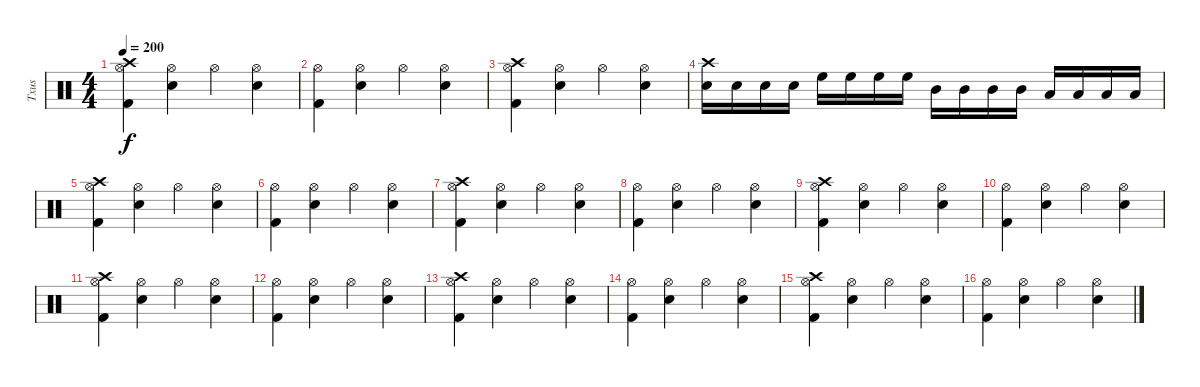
\track ("Txus" "Txus") {instrument percussion}
\staff
\articulation defaults
\ts (4 4)
\tempo 200
\clef neutral
\ks c
("Kick (hit) 2" "Crash high (hit)" "Hi-Hat (open)").4{dy f} ("Electric Snare (hit)" "Hi-Hat (open)").4 "Hi-Hat (open)".4 ("Electric Snare (hit)" "Hi-Hat (open)").4 |
("Kick (hit) 2" "Hi-Hat (open)").4 ("Electric Snare (hit)" "Hi-Hat (open)").4 "Hi-Hat (open)".4 ("Electric Snare (hit)" "Hi-Hat (open)").4 |
("Kick (hit) 2" "Crash high (hit)" "Hi-Hat (open)").4 ("Electric Snare (hit)" "Hi-Hat (open)").4 "Hi-Hat (open)".4 ("Electric Snare (hit)" "Hi-Hat (open)").4 |
("Electric Snare (hit)" "Crash high (hit)").16 "Electric Snare (hit)".16 "Electric Snare (hit)".16 "Electric Snare (hit)".16 "High Floor Tom (hit)".16 "High Floor Tom (hit)".16 "High Floor Tom (hit)".16 "High Floor Tom (hit)".16 "Mid Tom (hit)".16 "Mid Tom (hit)".16 "Mid Tom (hit)".16 "Mid Tom (hit)".16 "Low Tom (hit)".16 "Low Tom (hit)".16 "Low Tom (hit)".16 "Low Tom (hit)".16 |
("Kick (hit) 2" "Crash high (hit)" "Hi-Hat (open)").4 ("Electric Snare (hit)" "Hi-Hat (open)").4 "Hi-Hat (open)".4 ("Electric Snare (hit)" "Hi-Hat (open)").4 |
("Kick (hit) 2" "Hi-Hat (open)").4 ("Electric Snare (hit)" "Hi-Hat (open)").4 "Hi-Hat (open)".4 ("Electric Snare (hit)" "Hi-Hat (open)").4 |
("Kick (hit) 2" "Crash high (hit)" "Hi-Hat (open)").4 ("Electric Snare (hit)" "Hi-Hat (open)").4 "Hi-Hat (open)".4 ("Electric Snare (hit)" "Hi-Hat (open)").4 |
("Kick (hit) 2" "Hi-Hat (open)").4 ("Electric Snare (hit)" "Hi-Hat (open)").4 "Hi-Hat (open)".4 ("Electric Snare (hit)" "Hi-Hat (open)").4 |
("Kick (hit) 2" "Crash high (hit)" "Hi-Hat (open)").4 ("Electric Snare (hit)" "Hi-Hat (open)").4 "Hi-Hat (open)".4 ("Electric Snare (hit)" "Hi-Hat (open)").4 |
("Kick (hit) 2" "Hi-Hat (open)").4 ("Electric Snare (hit)" "Hi-Hat (open)").4 "Hi-Hat (open)".4 ("Electric Snare (hit)" "Hi-Hat (open)").4 |
("Kick (hit) 2" "Crash high (hit)" "Hi-Hat (open)").4 ("Electric Snare (hit)" "Hi-Hat (open)").4 "Hi-Hat (open)".4 ("Electric Snare (hit)" "Hi-Hat (open)").4 |
("Kick (hit) 2" "Hi-Hat (open)").4 ("Electric Snare (hit)" "Hi-Hat (open)").4 "Hi-Hat (open)".4 ("Electric Snare (hit)" "Hi-Hat (open)").4 |
("Kick (hit) 2" "Crash high (hit)" "Hi-Hat (open)").4 ("Electric Snare (hit)" "Hi-Hat (open)").4 "Hi-Hat (open)".4 ("Electric Snare (hit)" "Hi-Hat (open)").4 |
("Kick (hit) 2" "Hi-Hat (open)").4 ("Electric Snare (hit)" "Hi-Hat (open)").4 "Hi-Hat (open)".4 ("Electric Snare (hit)" "Hi-Hat (open)").4 |
("Kick (hit) 2" "Crash high (hit)" "Hi-Hat (open)").4 ("Electric Snare (hit)" "Hi-Hat (open)").4 "Hi-Hat (open)".4 ("Electric Snare (hit)" "Hi-Hat (open)").4 |
("Kick (hit) 2" "Hi-Hat (open)").4 ("Electric Snare (hit)" "Hi-Hat (open)").4 "Hi-Hat (open)".4 ("Electric Snare (hit)" "Hi-Hat (open)").4
